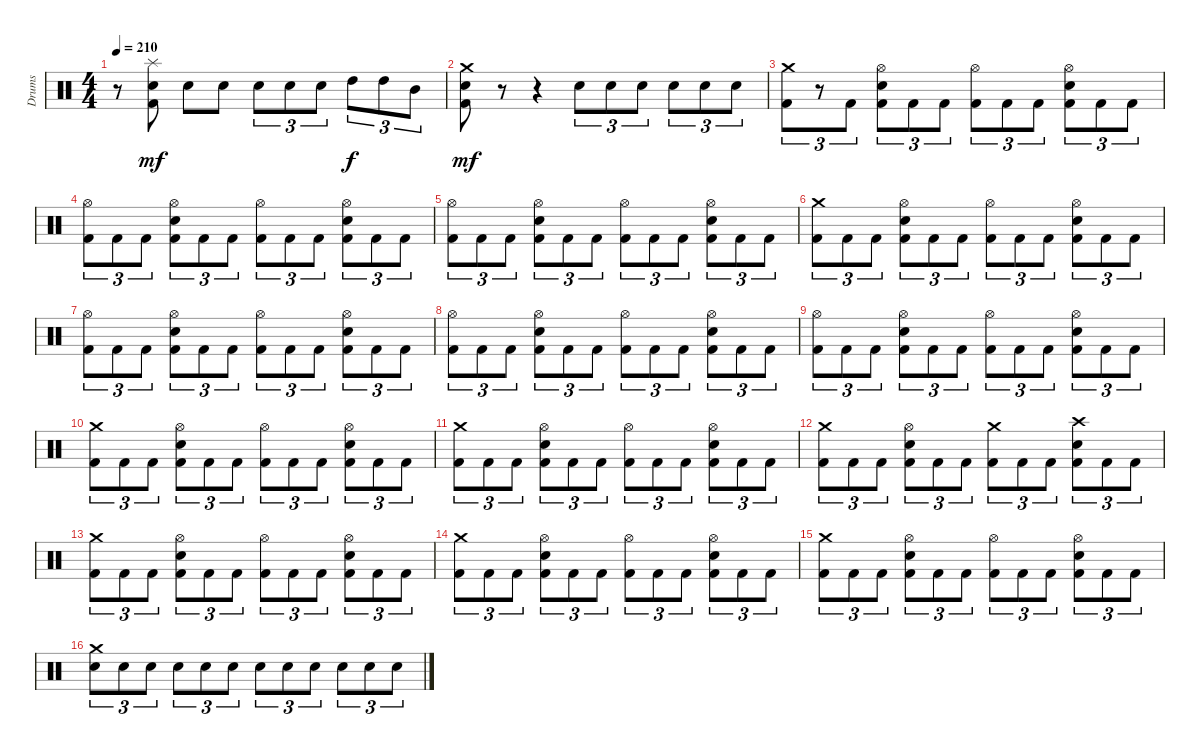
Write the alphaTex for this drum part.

\track ("Drums" "Drums") {instrument percussion}
\staff {score}
\articulation defaults
\ts (4 4)
\tempo 210
\clef neutral
\ks c
r.8{dy mf} ("Splash (hit)" "Electric Snare (hit)" "Kick (hit) 2").8 "Electric Snare (hit)".8 "Electric Snare (hit)".8 "Electric Snare (hit)".8{tu (3 2)} "Electric Snare (hit)".8{tu (3 2)} "Electric Snare (hit)".8{tu (3 2)} "High Tom (hit)".8{tu (3 2) dy f} "High Tom (hit)".8{tu (3 2)} "Mid Tom (hit)".8{tu (3 2)} |
("Crash medium (hit)" "Electric Snare (hit)" "Kick (hit) 2").8{dy mf} r.8 r.4 "Electric Snare (hit)".8{tu (3 2)} "Electric Snare (hit)".8{tu (3 2)} "Electric Snare (hit)".8{tu (3 2)} "Electric Snare (hit)".8{tu (3 2)} "Electric Snare (hit)".8{tu (3 2)} "Electric Snare (hit)".8{tu (3 2)} |
("Crash medium (hit)" "Kick (hit) 2").8{tu (3 2)} r.8{tu (3 2)} "Kick (hit) 2".8{tu (3 2)} ("Hi-Hat (open)" "Electric Snare (hit)" "Kick (hit) 2").8{tu (3 2)} "Kick (hit) 2".8{tu (3 2)} "Kick (hit) 2".8{tu (3 2)} ("Hi-Hat (open)" "Kick (hit) 2").8{tu (3 2)} "Kick (hit) 2".8{tu (3 2)} "Kick (hit) 2".8{tu (3 2)} ("Hi-Hat (open)" "Electric Snare (hit)" "Kick (hit) 2").8{tu (3 2)} "Kick (hit) 2".8{tu (3 2)} "Kick (hit) 2".8{tu (3 2)} |
("Hi-Hat (open)" "Kick (hit) 2").8{tu (3 2)} "Kick (hit) 2".8{tu (3 2)} "Kick (hit) 2".8{tu (3 2)} ("Hi-Hat (open)" "Electric Snare (hit)" "Kick (hit) 2").8{tu (3 2)} "Kick (hit) 2".8{tu (3 2)} "Kick (hit) 2".8{tu (3 2)} ("Hi-Hat (open)" "Kick (hit) 2").8{tu (3 2)} "Kick (hit) 2".8{tu (3 2)} "Kick (hit) 2".8{tu (3 2)} ("Hi-Hat (open)" "Electric Snare (hit)" "Kick (hit) 2").8{tu (3 2)} "Kick (hit) 2".8{tu (3 2)} "Kick (hit) 2".8{tu (3 2)} |
("Hi-Hat (open)" "Kick (hit) 2").8{tu (3 2)} "Kick (hit) 2".8{tu (3 2)} "Kick (hit) 2".8{tu (3 2)} ("Hi-Hat (open)" "Electric Snare (hit)" "Kick (hit) 2").8{tu (3 2)} "Kick (hit) 2".8{tu (3 2)} "Kick (hit) 2".8{tu (3 2)} ("Hi-Hat (open)" "Kick (hit) 2").8{tu (3 2)} "Kick (hit) 2".8{tu (3 2)} "Kick (hit) 2".8{tu (3 2)} ("Hi-Hat (open)" "Electric Snare (hit)" "Kick (hit) 2").8{tu (3 2)} "Kick (hit) 2".8{tu (3 2)} "Kick (hit) 2".8{tu (3 2)} |
("Crash medium (hit)" "Kick (hit) 2").8{tu (3 2)} "Kick (hit) 2".8{tu (3 2)} "Kick (hit) 2".8{tu (3 2)} ("Hi-Hat (open)" "Electric Snare (hit)" "Kick (hit) 2").8{tu (3 2)} "Kick (hit) 2".8{tu (3 2)} "Kick (hit) 2".8{tu (3 2)} ("Hi-Hat (open)" "Kick (hit) 2").8{tu (3 2)} "Kick (hit) 2".8{tu (3 2)} "Kick (hit) 2".8{tu (3 2)} ("Hi-Hat (open)" "Electric Snare (hit)" "Kick (hit) 2").8{tu (3 2)} "Kick (hit) 2".8{tu (3 2)} "Kick (hit) 2".8{tu (3 2)} |
("Hi-Hat (open)" "Kick (hit) 2").8{tu (3 2)} "Kick (hit) 2".8{tu (3 2)} "Kick (hit) 2".8{tu (3 2)} ("Hi-Hat (open)" "Electric Snare (hit)" "Kick (hit) 2").8{tu (3 2)} "Kick (hit) 2".8{tu (3 2)} "Kick (hit) 2".8{tu (3 2)} ("Hi-Hat (open)" "Kick (hit) 2").8{tu (3 2)} "Kick (hit) 2".8{tu (3 2)} "Kick (hit) 2".8{tu (3 2)} ("Hi-Hat (open)" "Electric Snare (hit)" "Kick (hit) 2").8{tu (3 2)} "Kick (hit) 2".8{tu (3 2)} "Kick (hit) 2".8{tu (3 2)} |
("Hi-Hat (open)" "Kick (hit) 2").8{tu (3 2)} "Kick (hit) 2".8{tu (3 2)} "Kick (hit) 2".8{tu (3 2)} ("Hi-Hat (open)" "Electric Snare (hit)" "Kick (hit) 2").8{tu (3 2)} "Kick (hit) 2".8{tu (3 2)} "Kick (hit) 2".8{tu (3 2)} ("Hi-Hat (open)" "Kick (hit) 2").8{tu (3 2)} "Kick (hit) 2".8{tu (3 2)} "Kick (hit) 2".8{tu (3 2)} ("Hi-Hat (open)" "Electric Snare (hit)" "Kick (hit) 2").8{tu (3 2)} "Kick (hit) 2".8{tu (3 2)} "Kick (hit) 2".8{tu (3 2)} |
("Hi-Hat (open)" "Kick (hit) 2").8{tu (3 2)} "Kick (hit) 2".8{tu (3 2)} "Kick (hit) 2".8{tu (3 2)} ("Hi-Hat (open)" "Electric Snare (hit)" "Kick (hit) 2").8{tu (3 2)} "Kick (hit) 2".8{tu (3 2)} "Kick (hit) 2".8{tu (3 2)} ("Hi-Hat (open)" "Kick (hit) 2").8{tu (3 2)} "Kick (hit) 2".8{tu (3 2)} "Kick (hit) 2".8{tu (3 2)} ("Hi-Hat (open)" "Electric Snare (hit)" "Kick (hit) 2").8{tu (3 2)} "Kick (hit) 2".8{tu (3 2)} "Kick (hit) 2".8{tu (3 2)} |
("Crash medium (hit)" "Kick (hit) 2").8{tu (3 2)} "Kick (hit) 2".8{tu (3 2)} "Kick (hit) 2".8{tu (3 2)} ("Hi-Hat (open)" "Electric Snare (hit)" "Kick (hit) 2").8{tu (3 2)} "Kick (hit) 2".8{tu (3 2)} "Kick (hit) 2".8{tu (3 2)} ("Hi-Hat (open)" "Kick (hit) 2").8{tu (3 2)} "Kick (hit) 2".8{tu (3 2)} "Kick (hit) 2".8{tu (3 2)} ("Hi-Hat (open)" "Electric Snare (hit)" "Kick (hit) 2").8{tu (3 2)} "Kick (hit) 2".8{tu (3 2)} "Kick (hit) 2".8{tu (3 2)} |
("Crash medium (hit)" "Kick (hit) 2").8{tu (3 2)} "Kick (hit) 2".8{tu (3 2)} "Kick (hit) 2".8{tu (3 2)} ("Hi-Hat (open)" "Electric Snare (hit)" "Kick (hit) 2").8{tu (3 2)} "Kick (hit) 2".8{tu (3 2)} "Kick (hit) 2".8{tu (3 2)} ("Hi-Hat (open)" "Kick (hit) 2").8{tu (3 2)} "Kick (hit) 2".8{tu (3 2)} "Kick (hit) 2".8{tu (3 2)} ("Hi-Hat (open)" "Electric Snare (hit)" "Kick (hit) 2").8{tu (3 2)} "Kick (hit) 2".8{tu (3 2)} "Kick (hit) 2".8{tu (3 2)} |
("Crash medium (hit)" "Kick (hit) 2").8{tu (3 2)} "Kick (hit) 2".8{tu (3 2)} "Kick (hit) 2".8{tu (3 2)} ("Hi-Hat (open)" "Electric Snare (hit)" "Kick (hit) 2").8{tu (3 2)} "Kick (hit) 2".8{tu (3 2)} "Kick (hit) 2".8{tu (3 2)} ("Crash medium (hit)" "Kick (hit) 2").8{tu (3 2)} "Kick (hit) 2".8{tu (3 2)} "Kick (hit) 2".8{tu (3 2)} ("Crash high (hit)" "Electric Snare (hit)" "Kick (hit) 2").8{tu (3 2)} "Kick (hit) 2".8{tu (3 2)} "Kick (hit) 2".8{tu (3 2)} |
("Crash medium (hit)" "Kick (hit) 2").8{tu (3 2)} "Kick (hit) 2".8{tu (3 2)} "Kick (hit) 2".8{tu (3 2)} ("Hi-Hat (open)" "Electric Snare (hit)" "Kick (hit) 2").8{tu (3 2)} "Kick (hit) 2".8{tu (3 2)} "Kick (hit) 2".8{tu (3 2)} ("Hi-Hat (open)" "Kick (hit) 2").8{tu (3 2)} "Kick (hit) 2".8{tu (3 2)} "Kick (hit) 2".8{tu (3 2)} ("Hi-Hat (open)" "Electric Snare (hit)" "Kick (hit) 2").8{tu (3 2)} "Kick (hit) 2".8{tu (3 2)} "Kick (hit) 2".8{tu (3 2)} |
("Crash medium (hit)" "Kick (hit) 2").8{tu (3 2)} "Kick (hit) 2".8{tu (3 2)} "Kick (hit) 2".8{tu (3 2)} ("Hi-Hat (open)" "Electric Snare (hit)" "Kick (hit) 2").8{tu (3 2)} "Kick (hit) 2".8{tu (3 2)} "Kick (hit) 2".8{tu (3 2)} ("Hi-Hat (open)" "Kick (hit) 2").8{tu (3 2)} "Kick (hit) 2".8{tu (3 2)} "Kick (hit) 2".8{tu (3 2)} ("Hi-Hat (open)" "Electric Snare (hit)" "Kick (hit) 2").8{tu (3 2)} "Kick (hit) 2".8{tu (3 2)} "Kick (hit) 2".8{tu (3 2)} |
("Crash medium (hit)" "Kick (hit) 2").8{tu (3 2)} "Kick (hit) 2".8{tu (3 2)} "Kick (hit) 2".8{tu (3 2)} ("Hi-Hat (open)" "Electric Snare (hit)" "Kick (hit) 2").8{tu (3 2)} "Kick (hit) 2".8{tu (3 2)} "Kick (hit) 2".8{tu (3 2)} ("Hi-Hat (open)" "Kick (hit) 2").8{tu (3 2)} "Kick (hit) 2".8{tu (3 2)} "Kick (hit) 2".8{tu (3 2)} ("Hi-Hat (open)" "Electric Snare (hit)" "Kick (hit) 2").8{tu (3 2)} "Kick (hit) 2".8{tu (3 2)} "Kick (hit) 2".8{tu (3 2)} |
("Crash medium (hit)" "Electric Snare (hit)").8{tu (3 2)} "Electric Snare (hit)".8{tu (3 2)} "Electric Snare (hit)".8{tu (3 2)} "Electric Snare (hit)".8{tu (3 2)} "Electric Snare (hit)".8{tu (3 2)} "Electric Snare (hit)".8{tu (3 2)} "Electric Snare (hit)".8{tu (3 2)} "Electric Snare (hit)".8{tu (3 2)} "Electric Snare (hit)".8{tu (3 2)} "Electric Snare (hit)".8{tu (3 2)} "Electric Snare (hit)".8{tu (3 2)} "Electric Snare (hit)".8{tu (3 2)}
